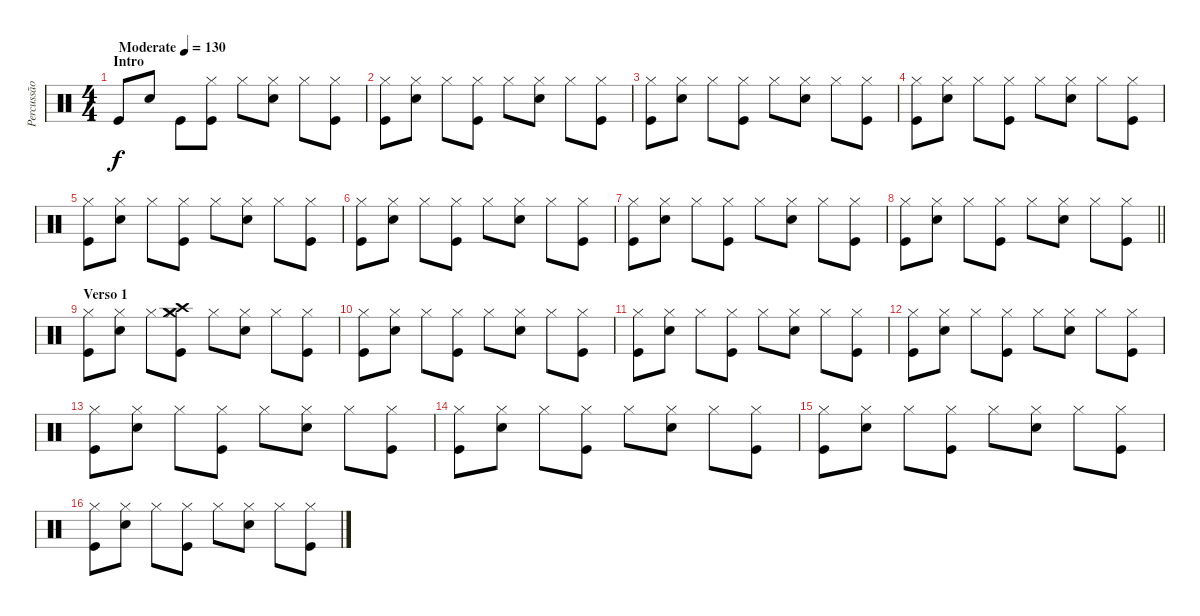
\track ("Percussão" "Percussão") {instrument percussion}
\staff {score}
\articulation defaults
\ts (4 4)
\section ("" "Intro")
\tempo (130 "Moderate")
\clef neutral
\ks c "Kick (hit)".8{dy f} "Snare (hit) 2".8 "Kick (hit)".8
("Kick (hit)" "Hi-Hat (closed)").8 "Hi-Hat (closed)".8 ("Hi-Hat (closed)" "Snare (hit) 2").8 "Hi-Hat (closed)".8 ("Hi-Hat (closed)" "Kick (hit)").8 |
("Hi-Hat (closed)" "Kick (hit)").8 ("Hi-Hat (closed)" "Snare (hit) 2").8 "Hi-Hat (closed)".8 ("Hi-Hat (closed)" "Kick (hit)").8 "Hi-Hat (closed)".8 ("Hi-Hat (closed)" "Snare (hit) 2").8 "Hi-Hat (closed)".8 ("Hi-Hat (closed)" "Kick (hit)").8 |
("Hi-Hat (closed)" "Kick (hit)").8 ("Hi-Hat (closed)" "Snare (hit) 2").8 "Hi-Hat (closed)".8 ("Hi-Hat (closed)" "Kick (hit)").8 "Hi-Hat (closed)".8 ("Hi-Hat (closed)" "Snare (hit) 2").8 "Hi-Hat (closed)".8 ("Hi-Hat (closed)" "Kick (hit)").8 |
("Hi-Hat (closed)" "Kick (hit)").8 ("Hi-Hat (closed)" "Snare (hit) 2").8 "Hi-Hat (closed)".8 ("Hi-Hat (closed)" "Kick (hit)").8 "Hi-Hat (closed)".8 ("Hi-Hat (closed)" "Snare (hit) 2").8 "Hi-Hat (closed)".8 ("Hi-Hat (closed)" "Kick (hit)").8 |
("Hi-Hat (closed)" "Kick (hit)").8 ("Hi-Hat (closed)" "Snare (hit) 2").8 "Hi-Hat (closed)".8 ("Hi-Hat (closed)" "Kick (hit)").8 "Hi-Hat (closed)".8 ("Hi-Hat (closed)" "Snare (hit) 2").8 "Hi-Hat (closed)".8 ("Hi-Hat (closed)" "Kick (hit)").8 |
("Hi-Hat (closed)" "Kick (hit)").8 ("Hi-Hat (closed)" "Snare (hit) 2").8 "Hi-Hat (closed)".8 ("Hi-Hat (closed)" "Kick (hit)").8 "Hi-Hat (closed)".8 ("Hi-Hat (closed)" "Snare (hit) 2").8 "Hi-Hat (closed)".8 ("Hi-Hat (closed)" "Kick (hit)").8 |
("Hi-Hat (closed)" "Kick (hit)").8 ("Hi-Hat (closed)" "Snare (hit) 2").8 "Hi-Hat (closed)".8 ("Hi-Hat (closed)" "Kick (hit)").8 "Hi-Hat (closed)".8 ("Hi-Hat (closed)" "Snare (hit) 2").8 "Hi-Hat (closed)".8 ("Hi-Hat (closed)" "Kick (hit)").8 |
\barLineRight lightlight
("Hi-Hat (closed)" "Kick (hit)").8 ("Hi-Hat (closed)" "Snare (hit) 2").8 "Hi-Hat (closed)".8 ("Hi-Hat (closed)" "Kick (hit)").8 "Hi-Hat (closed)".8 ("Hi-Hat (closed)" "Snare (hit) 2").8 "Hi-Hat (closed)".8 ("Hi-Hat (closed)" "Kick (hit)").8 |
\section ("" "Verso 1")
("Hi-Hat (closed)" "Kick (hit)").8 ("Hi-Hat (closed)" "Snare (hit) 2").8 "Hi-Hat (closed)".8 ("Hi-Hat (closed)" "Kick (hit)" "Crash medium (hit)" "Crash high (hit)").8 "Hi-Hat (closed)".8 ("Hi-Hat (closed)" "Snare (hit) 2").8 "Hi-Hat (closed)".8 ("Hi-Hat (closed)" "Kick (hit)").8 |
("Hi-Hat (closed)" "Kick (hit)").8 ("Hi-Hat (closed)" "Snare (hit) 2").8 "Hi-Hat (closed)".8 ("Hi-Hat (closed)" "Kick (hit)").8 "Hi-Hat (closed)".8 ("Hi-Hat (closed)" "Snare (hit) 2").8 "Hi-Hat (closed)".8 ("Hi-Hat (closed)" "Kick (hit)").8 |
("Hi-Hat (closed)" "Kick (hit)").8 ("Hi-Hat (closed)" "Snare (hit) 2").8 "Hi-Hat (closed)".8 ("Hi-Hat (closed)" "Kick (hit)").8 "Hi-Hat (closed)".8 ("Hi-Hat (closed)" "Snare (hit) 2").8 "Hi-Hat (closed)".8 ("Hi-Hat (closed)" "Kick (hit)").8 |
("Hi-Hat (closed)" "Kick (hit)").8 ("Hi-Hat (closed)" "Snare (hit) 2").8 "Hi-Hat (closed)".8 ("Hi-Hat (closed)" "Kick (hit)").8 "Hi-Hat (closed)".8 ("Hi-Hat (closed)" "Snare (hit) 2").8 "Hi-Hat (closed)".8 ("Hi-Hat (closed)" "Kick (hit)").8 |
("Hi-Hat (closed)" "Kick (hit)").8 ("Hi-Hat (closed)" "Snare (hit) 2").8 "Hi-Hat (closed)".8 ("Hi-Hat (closed)" "Kick (hit)").8 "Hi-Hat (closed)".8 ("Hi-Hat (closed)" "Snare (hit) 2").8 "Hi-Hat (closed)".8 ("Hi-Hat (closed)" "Kick (hit)").8 |
("Hi-Hat (closed)" "Kick (hit)").8 ("Hi-Hat (closed)" "Snare (hit) 2").8 "Hi-Hat (closed)".8 ("Hi-Hat (closed)" "Kick (hit)").8 "Hi-Hat (closed)".8 ("Hi-Hat (closed)" "Snare (hit) 2").8 "Hi-Hat (closed)".8 ("Hi-Hat (closed)" "Kick (hit)").8 |
("Hi-Hat (closed)" "Kick (hit)").8 ("Hi-Hat (closed)" "Snare (hit) 2").8 "Hi-Hat (closed)".8 ("Hi-Hat (closed)" "Kick (hit)").8 "Hi-Hat (closed)".8 ("Hi-Hat (closed)" "Snare (hit) 2").8 "Hi-Hat (closed)".8 ("Hi-Hat (closed)" "Kick (hit)").8 |
("Hi-Hat (closed)" "Kick (hit)").8 ("Hi-Hat (closed)" "Snare (hit) 2").8 "Hi-Hat (closed)".8 ("Hi-Hat (closed)" "Kick (hit)").8 "Hi-Hat (closed)".8 ("Hi-Hat (closed)" "Snare (hit) 2").8 "Hi-Hat (closed)".8 ("Hi-Hat (closed)" "Kick (hit)").8
